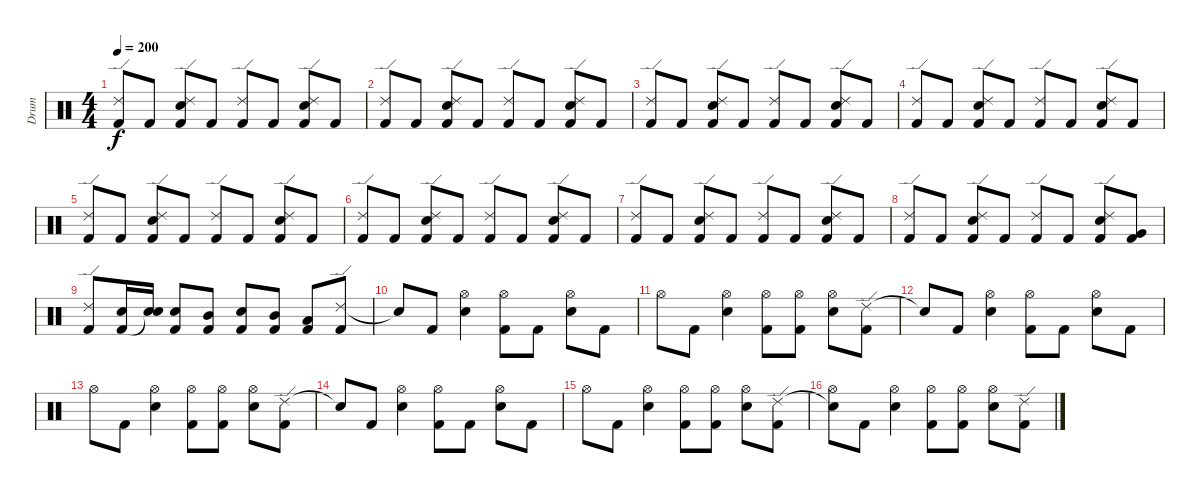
\track ("Drum" "Drum") {instrument percussion}
\staff {score}
\articulation defaults
\ts (4 4)
\tempo 200
\clef neutral
\ks c
("Ride (edge) 2" "Kick (hit) 2").8{dy f} "Kick (hit) 2".8 ("Ride (edge) 2" "Electric Snare (hit)" "Kick (hit) 2").8 "Kick (hit) 2".8 ("Ride (edge) 2" "Kick (hit) 2").8 "Kick (hit) 2".8 ("Ride (edge) 2" "Electric Snare (hit)" "Kick (hit) 2").8 "Kick (hit) 2".8 |
("Ride (edge) 2" "Kick (hit) 2").8 "Kick (hit) 2".8 ("Ride (edge) 2" "Electric Snare (hit)" "Kick (hit) 2").8 "Kick (hit) 2".8 ("Ride (edge) 2" "Kick (hit) 2").8 "Kick (hit) 2".8 ("Ride (edge) 2" "Electric Snare (hit)" "Kick (hit) 2").8 "Kick (hit) 2".8 |
("Ride (edge) 2" "Kick (hit) 2").8 "Kick (hit) 2".8 ("Ride (edge) 2" "Electric Snare (hit)" "Kick (hit) 2").8 "Kick (hit) 2".8 ("Ride (edge) 2" "Kick (hit) 2").8 "Kick (hit) 2".8 ("Ride (edge) 2" "Electric Snare (hit)" "Kick (hit) 2").8 "Kick (hit) 2".8 |
("Ride (edge) 2" "Kick (hit) 2").8 "Kick (hit) 2".8 ("Ride (edge) 2" "Electric Snare (hit)" "Kick (hit) 2").8 "Kick (hit) 2".8 ("Ride (edge) 2" "Kick (hit) 2").8 "Kick (hit) 2".8 ("Ride (edge) 2" "Electric Snare (hit)" "Kick (hit) 2").8 "Kick (hit) 2".8 |
("Ride (edge) 2" "Kick (hit) 2").8 "Kick (hit) 2".8 ("Ride (edge) 2" "Electric Snare (hit)" "Kick (hit) 2").8 "Kick (hit) 2".8 ("Ride (edge) 2" "Kick (hit) 2").8 "Kick (hit) 2".8 ("Ride (edge) 2" "Electric Snare (hit)" "Kick (hit) 2").8 "Kick (hit) 2".8 |
("Ride (edge) 2" "Kick (hit) 2").8 "Kick (hit) 2".8 ("Ride (edge) 2" "Electric Snare (hit)" "Kick (hit) 2").8 "Kick (hit) 2".8 ("Ride (edge) 2" "Kick (hit) 2").8 "Kick (hit) 2".8 ("Ride (edge) 2" "Electric Snare (hit)" "Kick (hit) 2").8 "Kick (hit) 2".8 |
("Ride (edge) 2" "Kick (hit) 2").8 "Kick (hit) 2".8 ("Ride (edge) 2" "Electric Snare (hit)" "Kick (hit) 2").8 "Kick (hit) 2".8 ("Ride (edge) 2" "Kick (hit) 2").8 "Kick (hit) 2".8 ("Ride (edge) 2" "Electric Snare (hit)" "Kick (hit) 2").8 "Kick (hit) 2".8 |
("Ride (edge) 2" "Kick (hit) 2").8 "Kick (hit) 2".8 ("Ride (edge) 2" "Electric Snare (hit)" "Kick (hit) 2").8 "Kick (hit) 2".8 ("Ride (edge) 2" "Kick (hit) 2").8 "Kick (hit) 2".8 ("Ride (edge) 2" "Electric Snare (hit)" "Kick (hit) 2").8 ("Very Low Tom (hit)" "Kick (hit) 2").8 |
("Ride (edge) 2" "Kick (hit) 2").8 ("Electric Snare (hit)" "Kick (hit) 2").16 ("Electric Snare (hit)" "Snare (hit)"{t}).16 ("Electric Snare (hit)" "Kick (hit) 2").8 ("Mid Tom (hit)" "Kick (hit) 2").8 ("Electric Snare (hit)" "Kick (hit) 2").8 ("Mid Tom (hit)" "Kick (hit) 2").8 ("Low Tom (hit)" "Kick (hit) 2").8 ("Ride (edge) 2" "Kick (hit) 2").8 |
"Snare (hit)"{t}.8 "Kick (hit) 2".8 ("Hi-Hat (open)" "Electric Snare (hit)").4 ("Hi-Hat (open)" "Kick (hit) 2").8 "Kick (hit) 2".8 ("Hi-Hat (open)" "Electric Snare (hit)").8 "Kick (hit) 2".8 |
"Hi-Hat (open)".8 "Kick (hit) 2".8 ("Hi-Hat (open)" "Electric Snare (hit)").4 ("Hi-Hat (open)" "Kick (hit) 2").8 ("Hi-Hat (open)" "Kick (hit) 2").8 ("Hi-Hat (open)" "Electric Snare (hit)").8 ("Ride (edge) 2" "Kick (hit) 2").8 |
"Snare (hit)"{t}.8 "Kick (hit) 2".8 ("Hi-Hat (open)" "Electric Snare (hit)").4 ("Hi-Hat (open)" "Kick (hit) 2").8 "Kick (hit) 2".8 ("Hi-Hat (open)" "Electric Snare (hit)").8 "Kick (hit) 2".8 |
"Hi-Hat (open)".8 "Kick (hit) 2".8 ("Hi-Hat (open)" "Electric Snare (hit)").4 ("Hi-Hat (open)" "Kick (hit) 2").8 ("Hi-Hat (open)" "Kick (hit) 2").8 ("Hi-Hat (open)" "Electric Snare (hit)").8 ("Ride (edge) 2" "Kick (hit) 2").8 |
"Snare (hit)"{t}.8 "Kick (hit) 2".8 ("Hi-Hat (open)" "Electric Snare (hit)").4 ("Hi-Hat (open)" "Kick (hit) 2").8 "Kick (hit) 2".8 ("Hi-Hat (open)" "Electric Snare (hit)").8 "Kick (hit) 2".8 |
"Hi-Hat (open)".8 "Kick (hit) 2".8 ("Hi-Hat (open)" "Electric Snare (hit)").4 ("Hi-Hat (open)" "Kick (hit) 2").8 ("Hi-Hat (open)" "Kick (hit) 2").8 ("Hi-Hat (open)" "Electric Snare (hit)").8 ("Ride (edge) 2" "Kick (hit) 2").8 |
("Snare (hit)"{t} "Hi-Hat (open)").8 "Kick (hit) 2".8 ("Hi-Hat (open)" "Electric Snare (hit)").4 ("Hi-Hat (open)" "Kick (hit) 2").8 ("Hi-Hat (open)" "Kick (hit) 2").8 ("Hi-Hat (open)" "Electric Snare (hit)").8 ("Ride (edge) 2" "Kick (hit) 2").8
